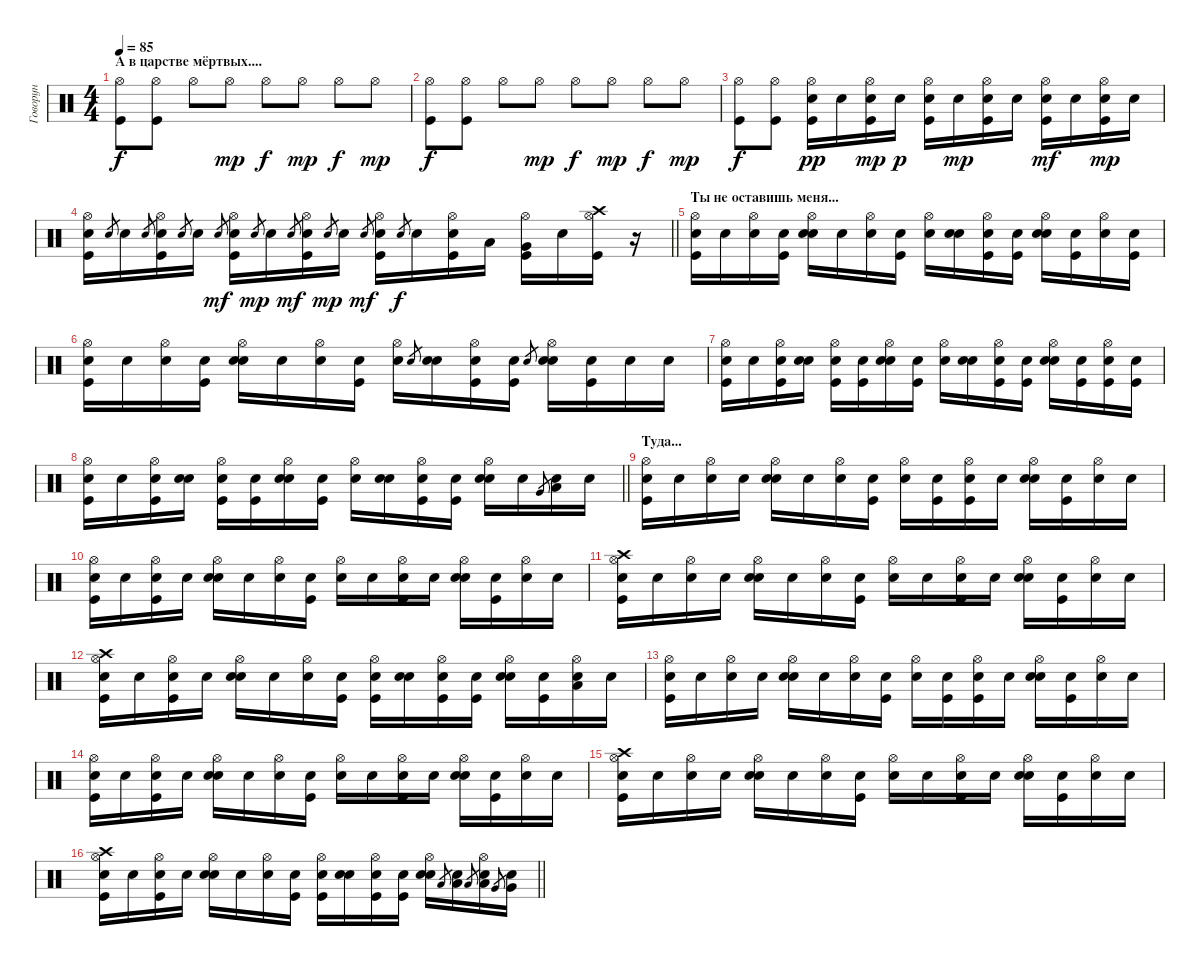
\track ("Говорун" "Говорун") {instrument percussion}
\staff {score}
\articulation defaults
\ts (4 4)
\section ("" "А в царстве мёртвых....")
\tempo 85
\clef neutral
\ks c
("Hi-Hat (open)" "Kick (hit)").8{dy f} ("Hi-Hat (open)" "Kick (hit)").8 "Hi-Hat (open)".8 "Hi-Hat (open)".8{dy mp} "Hi-Hat (open)".8{dy f} "Hi-Hat (open)".8{dy mp} "Hi-Hat (open)".8{dy f} "Hi-Hat (open)".8{dy mp} |
("Hi-Hat (open)" "Kick (hit)").8{dy f} ("Hi-Hat (open)" "Kick (hit)").8 "Hi-Hat (open)".8 "Hi-Hat (open)".8{dy mp} "Hi-Hat (open)".8{dy f} "Hi-Hat (open)".8{dy mp} "Hi-Hat (open)".8{dy f} "Hi-Hat (open)".8{dy mp} |
("Hi-Hat (open)" "Kick (hit)").8{dy f} ("Hi-Hat (open)" "Kick (hit)").8 ("Kick (hit)" "Electric Snare (hit)" "Hi-Hat (open)").16{dy pp} "Electric Snare (hit)".16 ("Kick (hit)" "Electric Snare (hit)" "Hi-Hat (open)").16{dy mp} "Electric Snare (hit)".16{dy p} ("Kick (hit)" "Electric Snare (hit)" "Hi-Hat (open)").16 "Electric Snare (hit)".16{dy mp} ("Kick (hit)" "Electric Snare (hit)" "Hi-Hat (open)").16 "Electric Snare (hit)".16 ("Kick (hit)" "Electric Snare (hit)" "Hi-Hat (open)").16{dy mf} "Electric Snare (hit)".16 ("Kick (hit)" "Electric Snare (hit)" "Hi-Hat (open)").16{dy mp} "Electric Snare (hit)".16 |
\barLineRight lightlight
("Kick (hit)" "Electric Snare (hit)" "Hi-Hat (open)").16 "Electric Snare (hit)".8{gr} "Electric Snare (hit)".16 "Electric Snare (hit)".8{gr} ("Kick (hit)" "Electric Snare (hit)" "Hi-Hat (open)").16 "Electric Snare (hit)".8{gr} "Electric Snare (hit)".16 "Electric Snare (hit)".8{gr dy mf} ("Kick (hit)" "Electric Snare (hit)" "Hi-Hat (open)").16 "Electric Snare (hit)".8{gr dy mp} "Electric Snare (hit)".16 "Electric Snare (hit)".8{gr dy mf} ("Kick (hit)" "Electric Snare (hit)" "Hi-Hat (open)").16 "Electric Snare (hit)".8{gr dy mp} "Electric Snare (hit)".16 "Electric Snare (hit)".8{gr dy mf} ("Kick (hit)" "Electric Snare (hit)" "Hi-Hat (open)").16 "Electric Snare (hit)".8{gr dy f} "Electric Snare (hit)".16 ("Kick (hit)" "Electric Snare (hit)" "Hi-Hat (open)").16 "Low Tom (hit)".16 ("Kick (hit)" "Very Low Tom (hit)" "Hi-Hat (open)").16 "Electric Snare (hit)".16 ("Kick (hit)" "Crash high (hit)" "Hi-Hat (open)").16 r.16 |
\section ("" "Ты не оставишь меня...")
("Kick (hit)" "Hi-Hat (open)" "Snare (hit)"{x}).16 "Snare (hit)"{x}.16 ("Hi-Hat (open)" "Snare (hit)"{x}).16 ("Kick (hit)" "Snare (hit)"{x}).16 ("Snare (hit) 2" "Hi-Hat (open)" "Snare (hit)"{x}).16 "Snare (hit)"{x}.16 ("Hi-Hat (open)" "Snare (hit)"{x}).16 ("Kick (hit)" "Snare (hit)"{x}).16 ("Hi-Hat (open)" "Snare (hit)"{x}).16 ("Snare (hit) 2" "Snare (hit)"{x}).16 ("Kick (hit)" "Hi-Hat (open)" "Snare (hit)"{x}).16 ("Kick (hit)" "Snare (hit)"{x}).16 ("Snare (hit) 2" "Hi-Hat (open)" "Snare (hit)"{x}).16 ("Kick (hit)" "Snare (hit)"{x}).16 ("Hi-Hat (open)" "Snare (hit)"{x}).16 ("Kick (hit)" "Snare (hit)"{x}).16 |
("Kick (hit)" "Hi-Hat (open)" "Snare (hit)"{x}).16 "Snare (hit)"{x}.16 ("Hi-Hat (open)" "Snare (hit)"{x}).16 ("Kick (hit)" "Snare (hit)"{x}).16 ("Snare (hit) 2" "Hi-Hat (open)" "Snare (hit)"{x}).16 "Snare (hit)"{x}.16 ("Hi-Hat (open)" "Snare (hit)"{x}).16 ("Kick (hit)" "Snare (hit)"{x}).16 ("Hi-Hat (open)" "Snare (hit)"{x}).16 "Snare (hit) 2".8{gr} ("Snare (hit) 2" "Snare (hit)"{x}).16 ("Kick (hit)" "Hi-Hat (open)" "Snare (hit)"{x}).16 ("Kick (hit)" "Snare (hit)"{x}).16 "Snare (hit) 2".8{gr} ("Snare (hit) 2" "Hi-Hat (open)" "Snare (hit)"{x}).16 ("Kick (hit)" "Snare (hit)"{x}).16 "Snare (hit)"{x}.16 "Snare (hit)"{x}.16 |
("Kick (hit)" "Hi-Hat (open)" "Snare (hit)"{x}).16 "Snare (hit)"{x}.16 ("Kick (hit)" "Hi-Hat (open)" "Snare (hit)"{x}).16 ("Snare (hit) 2" "Snare (hit)"{x}).16 ("Kick (hit)" "Hi-Hat (open)" "Snare (hit)"{x}).16 ("Kick (hit)" "Snare (hit)"{x}).16 ("Snare (hit) 2" "Hi-Hat (open)" "Snare (hit)"{x}).16 ("Kick (hit)" "Snare (hit)"{x}).16 ("Hi-Hat (open)" "Snare (hit)"{x}).16 ("Snare (hit) 2" "Snare (hit)"{x}).16 ("Kick (hit)" "Hi-Hat (open)" "Snare (hit)"{x}).16 ("Kick (hit)" "Snare (hit)"{x}).16 ("Snare (hit) 2" "Hi-Hat (open)" "Snare (hit)"{x}).16 ("Kick (hit)" "Snare (hit)"{x}).16 ("Kick (hit)" "Hi-Hat (open)" "Snare (hit)"{x}).16 ("Kick (hit)" "Snare (hit)"{x}).16 |
\barLineRight lightlight
("Kick (hit)" "Hi-Hat (open)" "Snare (hit)"{x}).16 "Snare (hit)"{x}.16 ("Kick (hit)" "Hi-Hat (open)" "Snare (hit)"{x}).16 ("Snare (hit) 2" "Snare (hit)"{x}).16 ("Kick (hit)" "Hi-Hat (open)" "Snare (hit)"{x}).16 ("Kick (hit)" "Snare (hit)"{x}).16 ("Snare (hit) 2" "Hi-Hat (open)" "Snare (hit)"{x}).16 ("Kick (hit)" "Snare (hit)"{x}).16 ("Hi-Hat (open)" "Snare (hit)"{x}).16 ("Snare (hit) 2" "Snare (hit)"{x}).16 ("Kick (hit)" "Hi-Hat (open)" "Snare (hit)"{x}).16 ("Kick (hit)" "Snare (hit)"{x}).16 ("Snare (hit) 2" "Hi-Hat (open)" "Snare (hit)"{x}).16 "Snare (hit)"{x}.16 "Very Low Tom (hit)".8{gr} ("Low Tom (hit)" "Snare (hit)"{x}).16 "Snare (hit)"{x}.16 |
\section ("" "Туда...")
("Kick (hit)" "Hi-Hat (open)" "Snare (hit)"{x}).16 "Snare (hit)"{x}.16 ("Hi-Hat (open)" "Snare (hit)"{x}).16 "Snare (hit)"{x}.16 ("Snare (hit) 2" "Hi-Hat (open)" "Snare (hit)"{x}).16 "Snare (hit)"{x}.16 ("Hi-Hat (open)" "Snare (hit)"{x}).16 ("Kick (hit)" "Snare (hit)"{x}).16 ("Hi-Hat (open)" "Snare (hit)"{x}).16 ("Kick (hit)" "Snare (hit)"{x}).16 ("Kick (hit)" "Hi-Hat (open)" "Snare (hit)"{x}).16 "Snare (hit)"{x}.16 ("Snare (hit) 2" "Hi-Hat (open)" "Snare (hit)"{x}).16 ("Kick (hit)" "Snare (hit)"{x}).16 ("Hi-Hat (open)" "Snare (hit)"{x}).16 "Snare (hit)"{x}.16 |
("Kick (hit)" "Hi-Hat (open)" "Snare (hit)"{x}).16 "Snare (hit)"{x}.16 ("Kick (hit)" "Hi-Hat (open)" "Snare (hit)"{x}).16 "Snare (hit)"{x}.16 ("Snare (hit) 2" "Hi-Hat (open)" "Snare (hit)"{x}).16 "Snare (hit)"{x}.16 ("Hi-Hat (open)" "Snare (hit)"{x}).16 ("Kick (hit)" "Snare (hit)"{x}).16 ("Hi-Hat (open)" "Snare (hit)"{x}).16 "Snare (hit)"{x}.16 ("Kick (hit)" "Hi-Hat (open)" "Snare (hit)"{x}).16 "Snare (hit)"{x}.16 ("Snare (hit) 2" "Hi-Hat (open)" "Snare (hit)"{x}).16 ("Kick (hit)" "Snare (hit)"{x}).16 ("Hi-Hat (open)" "Snare (hit)"{x}).16 "Snare (hit)"{x}.16 |
("Kick (hit)" "Hi-Hat (open)" "Crash high (hit)" "Snare (hit)"{x}).16 "Snare (hit)"{x}.16 ("Hi-Hat (open)" "Snare (hit)"{x}).16 "Snare (hit)"{x}.16 ("Snare (hit) 2" "Hi-Hat (open)" "Snare (hit)"{x}).16 "Snare (hit)"{x}.16 ("Hi-Hat (open)" "Snare (hit)"{x}).16 ("Kick (hit)" "Snare (hit)"{x}).16 ("Hi-Hat (open)" "Snare (hit)"{x}).16 "Snare (hit)"{x}.16 ("Kick (hit)" "Hi-Hat (open)" "Snare (hit)"{x}).16 "Snare (hit)"{x}.16 ("Snare (hit) 2" "Hi-Hat (open)" "Snare (hit)"{x}).16 ("Kick (hit)" "Snare (hit)"{x}).16 ("Hi-Hat (open)" "Snare (hit)"{x}).16 "Snare (hit)"{x}.16 |
("Kick (hit)" "Hi-Hat (open)" "Crash high (hit)" "Snare (hit)"{x}).16 "Snare (hit)"{x}.16 ("Kick (hit)" "Hi-Hat (open)" "Snare (hit)"{x}).16 "Snare (hit)"{x}.16 ("Snare (hit) 2" "Hi-Hat (open)" "Snare (hit)"{x}).16 "Snare (hit)"{x}.16 ("Hi-Hat (open)" "Snare (hit)"{x}).16 ("Kick (hit)" "Snare (hit)"{x}).16 ("Kick (hit)" "Hi-Hat (open)" "Snare (hit)"{x}).16 ("Snare (hit) 2" "Snare (hit)"{x}).16 ("Kick (hit)" "Hi-Hat (open)" "Snare (hit)"{x}).16 ("Kick (hit)" "Snare (hit)"{x}).16 ("Snare (hit) 2" "Hi-Hat (open)" "Snare (hit)"{x}).16 ("Kick (hit)" "Snare (hit)"{x}).16 ("Low Tom (hit)" "Hi-Hat (open)" "Snare (hit)"{x}).16 "Snare (hit)"{x}.16 |
("Kick (hit)" "Hi-Hat (open)" "Snare (hit)"{x}).16 "Snare (hit)"{x}.16 ("Hi-Hat (open)" "Snare (hit)"{x}).16 "Snare (hit)"{x}.16 ("Snare (hit) 2" "Hi-Hat (open)" "Snare (hit)"{x}).16 "Snare (hit)"{x}.16 ("Hi-Hat (open)" "Snare (hit)"{x}).16 ("Kick (hit)" "Snare (hit)"{x}).16 ("Hi-Hat (open)" "Snare (hit)"{x}).16 ("Kick (hit)" "Snare (hit)"{x}).16 ("Kick (hit)" "Hi-Hat (open)" "Snare (hit)"{x}).16 "Snare (hit)"{x}.16 ("Snare (hit) 2" "Hi-Hat (open)" "Snare (hit)"{x}).16 ("Kick (hit)" "Snare (hit)"{x}).16 ("Hi-Hat (open)" "Snare (hit)"{x}).16 "Snare (hit)"{x}.16 |
("Kick (hit)" "Hi-Hat (open)" "Snare (hit)"{x}).16 "Snare (hit)"{x}.16 ("Kick (hit)" "Hi-Hat (open)" "Snare (hit)"{x}).16 "Snare (hit)"{x}.16 ("Snare (hit) 2" "Hi-Hat (open)" "Snare (hit)"{x}).16 "Snare (hit)"{x}.16 ("Hi-Hat (open)" "Snare (hit)"{x}).16 ("Kick (hit)" "Snare (hit)"{x}).16 ("Hi-Hat (open)" "Snare (hit)"{x}).16 "Snare (hit)"{x}.16 ("Kick (hit)" "Hi-Hat (open)" "Snare (hit)"{x}).16 "Snare (hit)"{x}.16 ("Snare (hit) 2" "Hi-Hat (open)" "Snare (hit)"{x}).16 ("Kick (hit)" "Snare (hit)"{x}).16 ("Hi-Hat (open)" "Snare (hit)"{x}).16 "Snare (hit)"{x}.16 |
("Kick (hit)" "Hi-Hat (open)" "Crash high (hit)" "Snare (hit)"{x}).16 "Snare (hit)"{x}.16 ("Hi-Hat (open)" "Snare (hit)"{x}).16 "Snare (hit)"{x}.16 ("Snare (hit) 2" "Hi-Hat (open)" "Snare (hit)"{x}).16 "Snare (hit)"{x}.16 ("Hi-Hat (open)" "Snare (hit)"{x}).16 ("Kick (hit)" "Snare (hit)"{x}).16 ("Hi-Hat (open)" "Snare (hit)"{x}).16 "Snare (hit)"{x}.16 ("Kick (hit)" "Hi-Hat (open)" "Snare (hit)"{x}).16 "Snare (hit)"{x}.16 ("Snare (hit) 2" "Hi-Hat (open)" "Snare (hit)"{x}).16 ("Kick (hit)" "Snare (hit)"{x}).16 ("Hi-Hat (open)" "Snare (hit)"{x}).16 "Snare (hit)"{x}.16 |
\barLineRight lightlight
("Kick (hit)" "Hi-Hat (open)" "Crash high (hit)" "Snare (hit)"{x}).16 "Snare (hit)"{x}.16 ("Kick (hit)" "Hi-Hat (open)" "Snare (hit)"{x}).16 "Snare (hit)"{x}.16 ("Snare (hit) 2" "Hi-Hat (open)" "Snare (hit)"{x}).16 "Snare (hit)"{x}.16 ("Hi-Hat (open)" "Snare (hit)"{x}).16 ("Kick (hit)" "Snare (hit)"{x}).16 ("Kick (hit)" "Hi-Hat (open)" "Snare (hit)"{x}).16 ("Snare (hit) 2" "Snare (hit)"{x}).16 ("Kick (hit)" "Hi-Hat (open)" "Snare (hit)"{x}).16 ("Kick (hit)" "Snare (hit)"{x}).16 ("Snare (hit) 2" "Hi-Hat (open)" "Snare (hit)"{x}).16 "Low Tom (hit)".8{gr} ("Low Tom (hit)" "Snare (hit)"{x}).16 "Low Tom (hit)".8{gr} ("Low Tom (hit)" "Hi-Hat (open)" "Snare (hit)"{x}).16 "Very Low Tom (hit)".8{gr} ("Very Low Tom (hit)" "Snare (hit)"{x}).16
